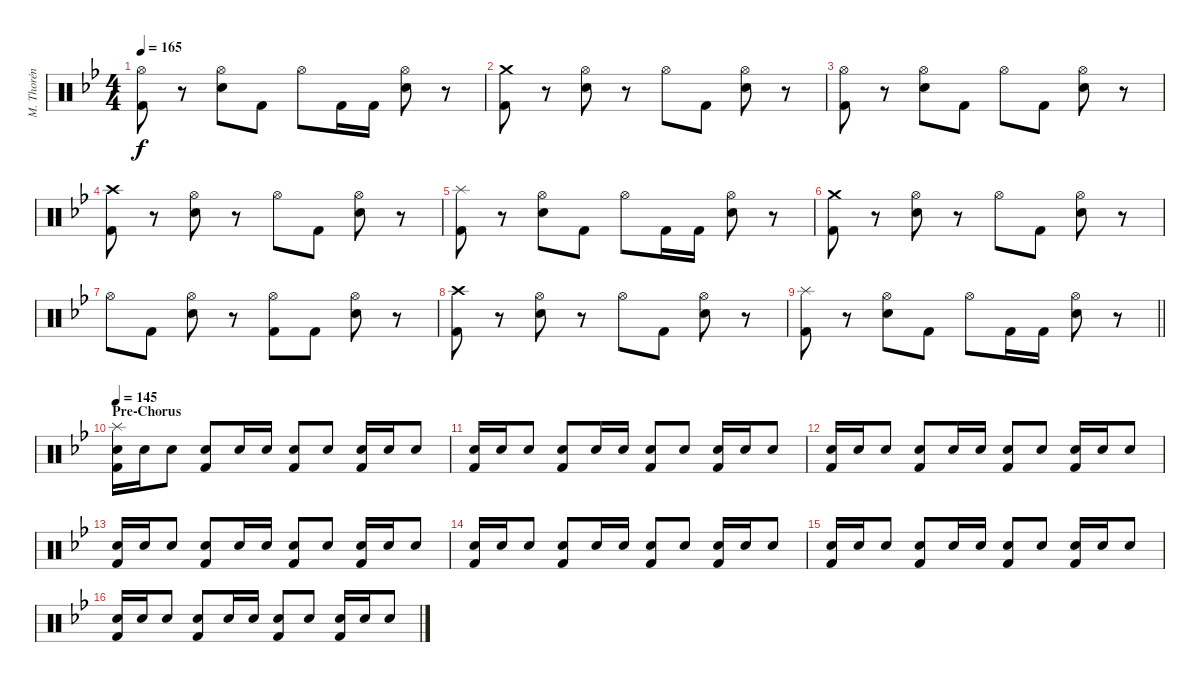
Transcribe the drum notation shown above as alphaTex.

\track ("M. Thorén (Drums)" "M. Thorén ") {instrument percussion}
\staff {score}
\articulation defaults
\ts (4 4)
\tempo 165
\clef neutral
\ks gminor
("Hi-Hat (open)" "Kick (hit) 2").8{dy f} r.8 ("Hi-Hat (open)" "Electric Snare (hit)").8 "Kick (hit) 2".8 "Hi-Hat (open)".8 "Kick (hit) 2".16 "Kick (hit) 2".16 ("Hi-Hat (open)" "Electric Snare (hit)").8 r.8 |
("Crash medium (hit)" "Kick (hit) 2").8 r.8 ("Hi-Hat (open)" "Electric Snare (hit)").8 r.8 "Hi-Hat (open)".8 "Kick (hit) 2".8 ("Hi-Hat (open)" "Electric Snare (hit)").8 r.8 |
("Hi-Hat (open)" "Kick (hit) 2").8 r.8 ("Hi-Hat (open)" "Electric Snare (hit)").8 "Kick (hit) 2".8 "Hi-Hat (open)".8 "Kick (hit) 2".8 ("Hi-Hat (open)" "Electric Snare (hit)").8 r.8 |
("Crash high (hit)" "Kick (hit) 2").8 r.8 ("Hi-Hat (open)" "Electric Snare (hit)").8 r.8 "Hi-Hat (open)".8 "Kick (hit) 2".8 ("Hi-Hat (open)" "Electric Snare (hit)").8 r.8 |
("Splash (hit)" "Kick (hit) 2").8 r.8 ("Hi-Hat (open)" "Electric Snare (hit)").8 "Kick (hit) 2".8 "Hi-Hat (open)".8 "Kick (hit) 2".16 "Kick (hit) 2".16 ("Hi-Hat (open)" "Electric Snare (hit)").8 r.8 |
("Crash medium (hit)" "Kick (hit) 2").8 r.8 ("Hi-Hat (open)" "Electric Snare (hit)").8 r.8 "Hi-Hat (open)".8 "Kick (hit) 2".8 ("Hi-Hat (open)" "Electric Snare (hit)").8 r.8 |
"Hi-Hat (open)".8 "Kick (hit) 2".8 ("Hi-Hat (open)" "Electric Snare (hit)").8 r.8 ("Hi-Hat (open)" "Kick (hit) 2").8 "Kick (hit) 2".8 ("Hi-Hat (open)" "Electric Snare (hit)").8 r.8 |
("Crash high (hit)" "Kick (hit) 2").8 r.8 ("Hi-Hat (open)" "Electric Snare (hit)").8 r.8 "Hi-Hat (open)".8 "Kick (hit) 2".8 ("Hi-Hat (open)" "Electric Snare (hit)").8 r.8 |
\barLineRight lightlight
("Splash (hit)" "Kick (hit) 2").8 r.8 ("Hi-Hat (open)" "Electric Snare (hit)").8 "Kick (hit) 2".8 "Hi-Hat (open)".8 "Kick (hit) 2".16 "Kick (hit) 2".16 ("Hi-Hat (open)" "Electric Snare (hit)").8 r.8 |
\section ("" "Pre-Chorus")
\tempo 145
("Splash (hit)" "Electric Snare (hit)" "Kick (hit) 2").16 "Electric Snare (hit)".16 "Electric Snare (hit)".8 ("Electric Snare (hit)" "Kick (hit) 2").8 "Electric Snare (hit)".16 "Electric Snare (hit)".16 ("Electric Snare (hit)" "Kick (hit) 2").8 "Electric Snare (hit)".8 ("Electric Snare (hit)" "Kick (hit) 2").16 "Electric Snare (hit)".16 "Electric Snare (hit)".8 |
("Electric Snare (hit)" "Kick (hit) 2").16 "Electric Snare (hit)".16 "Electric Snare (hit)".8 ("Electric Snare (hit)" "Kick (hit) 2").8 "Electric Snare (hit)".16 "Electric Snare (hit)".16 ("Electric Snare (hit)" "Kick (hit) 2").8 "Electric Snare (hit)".8 ("Electric Snare (hit)" "Kick (hit) 2").16 "Electric Snare (hit)".16 "Electric Snare (hit)".8 |
("Electric Snare (hit)" "Kick (hit) 2").16 "Electric Snare (hit)".16 "Electric Snare (hit)".8 ("Electric Snare (hit)" "Kick (hit) 2").8 "Electric Snare (hit)".16 "Electric Snare (hit)".16 ("Electric Snare (hit)" "Kick (hit) 2").8 "Electric Snare (hit)".8 ("Electric Snare (hit)" "Kick (hit) 2").16 "Electric Snare (hit)".16 "Electric Snare (hit)".8 |
("Electric Snare (hit)" "Kick (hit) 2").16 "Electric Snare (hit)".16 "Electric Snare (hit)".8 ("Electric Snare (hit)" "Kick (hit) 2").8 "Electric Snare (hit)".16 "Electric Snare (hit)".16 ("Electric Snare (hit)" "Kick (hit) 2").8 "Electric Snare (hit)".8 ("Electric Snare (hit)" "Kick (hit) 2").16 "Electric Snare (hit)".16 "Electric Snare (hit)".8 |
("Electric Snare (hit)" "Kick (hit) 2").16 "Electric Snare (hit)".16 "Electric Snare (hit)".8 ("Electric Snare (hit)" "Kick (hit) 2").8 "Electric Snare (hit)".16 "Electric Snare (hit)".16 ("Electric Snare (hit)" "Kick (hit) 2").8 "Electric Snare (hit)".8 ("Electric Snare (hit)" "Kick (hit) 2").16 "Electric Snare (hit)".16 "Electric Snare (hit)".8 |
("Electric Snare (hit)" "Kick (hit) 2").16 "Electric Snare (hit)".16 "Electric Snare (hit)".8 ("Electric Snare (hit)" "Kick (hit) 2").8 "Electric Snare (hit)".16 "Electric Snare (hit)".16 ("Electric Snare (hit)" "Kick (hit) 2").8 "Electric Snare (hit)".8 ("Electric Snare (hit)" "Kick (hit) 2").16 "Electric Snare (hit)".16 "Electric Snare (hit)".8 |
("Electric Snare (hit)" "Kick (hit) 2").16 "Electric Snare (hit)".16 "Electric Snare (hit)".8 ("Electric Snare (hit)" "Kick (hit) 2").8 "Electric Snare (hit)".16 "Electric Snare (hit)".16 ("Electric Snare (hit)" "Kick (hit) 2").8 "Electric Snare (hit)".8 ("Electric Snare (hit)" "Kick (hit) 2").16 "Electric Snare (hit)".16 "Electric Snare (hit)".8
